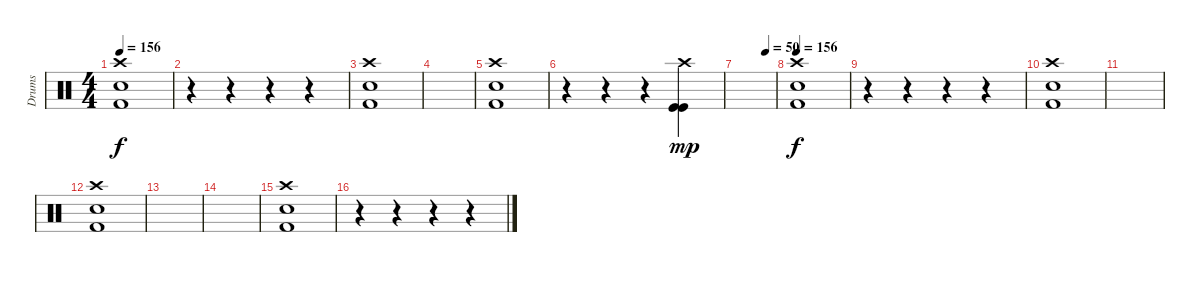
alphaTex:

\track ("Drums" "Drums") {instrument percussion}
\staff {score}
\articulation defaults
\ts (4 4)
\tempo 156
\clef neutral
\ks c
("Kick (hit) 2" "Snare (hit) 2" "Crash high (hit)").1{dy f} |
r.4 r.4 r.4 r.4 |
("Kick (hit) 2" "Snare (hit) 2" "Crash high (hit)").1 |
|
("Kick (hit) 2" "Snare (hit) 2" "Crash high (hit)").1 |
r.4 r.4 r.4 ("Kick (hit)" "Kick (hit)" "Crash high (hit)").4{dy mp} |
\tempo (50 0.75)
|
\tempo 156
("Kick (hit) 2" "Snare (hit) 2" "Crash high (hit)").1{dy f} |
r.4 r.4 r.4 r.4 |
("Kick (hit) 2" "Snare (hit) 2" "Crash high (hit)").1 |
|
("Kick (hit) 2" "Snare (hit) 2" "Crash high (hit)").1 |
|
|
("Kick (hit) 2" "Snare (hit) 2" "Crash high (hit)").1 |
r.4 r.4 r.4 r.4
